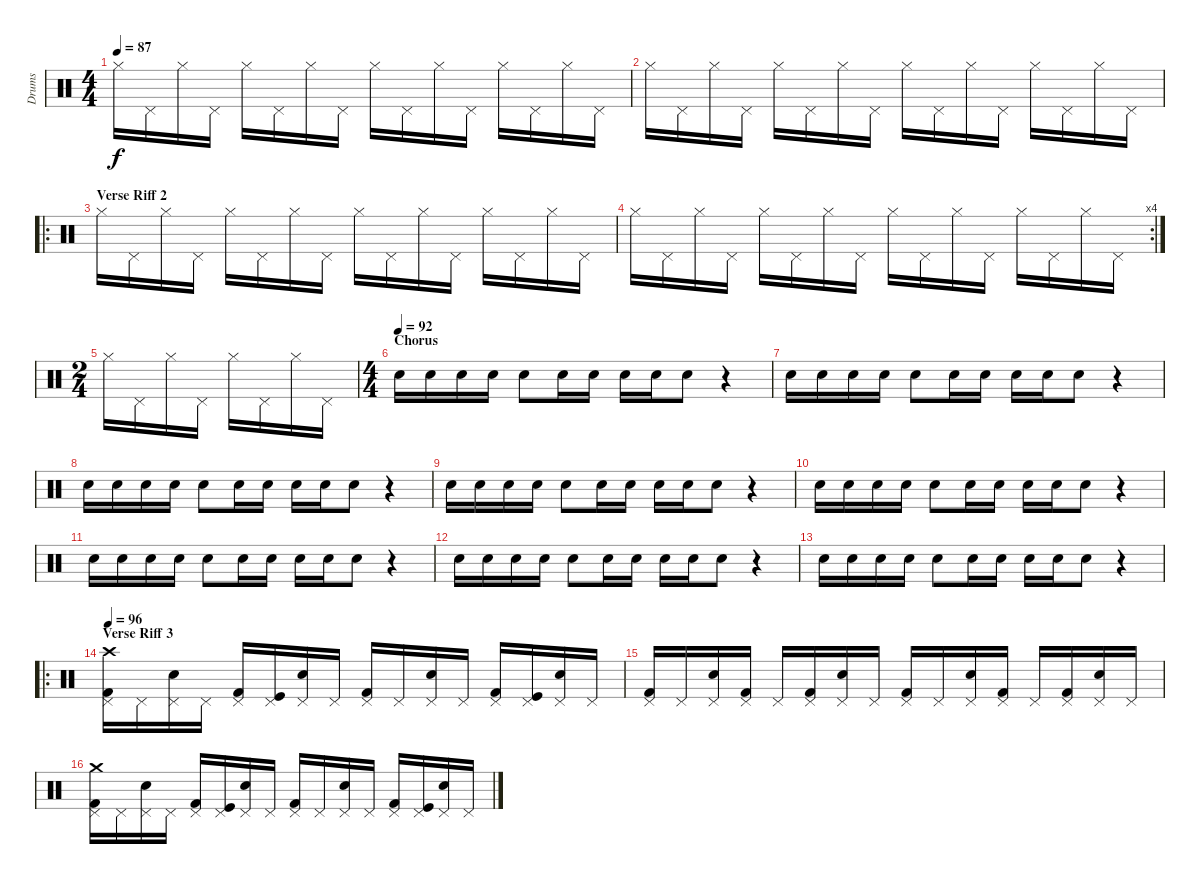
\track ("Drums" "Drums") {instrument percussion}
\staff {score}
\articulation defaults
\ts (4 4)
\tempo 87
\clef neutral
\ks c "Hi-Hat (closed)".16{dy f} "Pedal Hi-Hat (hit)".16 "Hi-Hat (closed)".16 "Pedal Hi-Hat (hit)".16 "Hi-Hat (closed)".16 "Pedal Hi-Hat (hit)".16 "Hi-Hat (closed)".16 "Pedal Hi-Hat (hit)".16 "Hi-Hat (closed)".16 "Pedal Hi-Hat (hit)".16 "Hi-Hat (closed)".16 "Pedal Hi-Hat (hit)".16 "Hi-Hat (closed)".16 "Pedal Hi-Hat (hit)".16 "Hi-Hat (closed)".16 "Pedal Hi-Hat (hit)".16
|
"Hi-Hat (closed)".16 "Pedal Hi-Hat (hit)".16 "Hi-Hat (closed)".16 "Pedal Hi-Hat (hit)".16 "Hi-Hat (closed)".16 "Pedal Hi-Hat (hit)".16 "Hi-Hat (closed)".16 "Pedal Hi-Hat (hit)".16 "Hi-Hat (closed)".16 "Pedal Hi-Hat (hit)".16 "Hi-Hat (closed)".16 "Pedal Hi-Hat (hit)".16 "Hi-Hat (closed)".16 "Pedal Hi-Hat (hit)".16 "Hi-Hat (closed)".16 "Pedal Hi-Hat (hit)".16 |
\ro
\section ("" "Verse Riff 2")
"Hi-Hat (closed)".16 "Pedal Hi-Hat (hit)".16 "Hi-Hat (closed)".16 "Pedal Hi-Hat (hit)".16 "Hi-Hat (closed)".16 "Pedal Hi-Hat (hit)".16 "Hi-Hat (closed)".16 "Pedal Hi-Hat (hit)".16 "Hi-Hat (closed)".16 "Pedal Hi-Hat (hit)".16 "Hi-Hat (closed)".16 "Pedal Hi-Hat (hit)".16 "Hi-Hat (closed)".16 "Pedal Hi-Hat (hit)".16 "Hi-Hat (closed)".16 "Pedal Hi-Hat (hit)".16 |
\rc 4 "Hi-Hat (closed)".16 "Pedal Hi-Hat (hit)".16 "Hi-Hat (closed)".16 "Pedal Hi-Hat (hit)".16 "Hi-Hat (closed)".16 "Pedal Hi-Hat (hit)".16 "Hi-Hat (closed)".16 "Pedal Hi-Hat (hit)".16 "Hi-Hat (closed)".16 "Pedal Hi-Hat (hit)".16 "Hi-Hat (closed)".16 "Pedal Hi-Hat (hit)".16 "Hi-Hat (closed)".16 "Pedal Hi-Hat (hit)".16 "Hi-Hat (closed)".16 "Pedal Hi-Hat (hit)".16
|
\ts (2 4)
"Hi-Hat (closed)".16 "Pedal Hi-Hat (hit)".16 "Hi-Hat (closed)".16 "Pedal Hi-Hat (hit)".16 "Hi-Hat (closed)".16 "Pedal Hi-Hat (hit)".16 "Hi-Hat (closed)".16 "Pedal Hi-Hat (hit)".16 |
\ts (4 4)
\section ("" "Chorus")
\tempo (92)
"Snare (hit) 2".16 "Snare (hit) 2".16 "Snare (hit) 2".16 "Snare (hit) 2".16 "Snare (hit) 2".8 "Snare (hit) 2".16 "Snare (hit) 2".16 "Snare (hit) 2".16 "Snare (hit) 2".16 "Snare (hit) 2".8 r.4 |
"Snare (hit) 2".16 "Snare (hit) 2".16 "Snare (hit) 2".16 "Snare (hit) 2".16 "Snare (hit) 2".8 "Snare (hit) 2".16 "Snare (hit) 2".16 "Snare (hit) 2".16 "Snare (hit) 2".16 "Snare (hit) 2".8 r.4 |
"Snare (hit) 2".16 "Snare (hit) 2".16 "Snare (hit) 2".16 "Snare (hit) 2".16 "Snare (hit) 2".8 "Snare (hit) 2".16 "Snare (hit) 2".16 "Snare (hit) 2".16 "Snare (hit) 2".16 "Snare (hit) 2".8 r.4 |
"Snare (hit) 2".16 "Snare (hit) 2".16 "Snare (hit) 2".16 "Snare (hit) 2".16 "Snare (hit) 2".8 "Snare (hit) 2".16 "Snare (hit) 2".16 "Snare (hit) 2".16 "Snare (hit) 2".16 "Snare (hit) 2".8 r.4 |
"Snare (hit) 2".16 "Snare (hit) 2".16 "Snare (hit) 2".16 "Snare (hit) 2".16 "Snare (hit) 2".8 "Snare (hit) 2".16 "Snare (hit) 2".16 "Snare (hit) 2".16 "Snare (hit) 2".16 "Snare (hit) 2".8 r.4 |
"Snare (hit) 2".16 "Snare (hit) 2".16 "Snare (hit) 2".16 "Snare (hit) 2".16 "Snare (hit) 2".8 "Snare (hit) 2".16 "Snare (hit) 2".16 "Snare (hit) 2".16 "Snare (hit) 2".16 "Snare (hit) 2".8 r.4 |
"Snare (hit) 2".16 "Snare (hit) 2".16 "Snare (hit) 2".16 "Snare (hit) 2".16 "Snare (hit) 2".8 "Snare (hit) 2".16 "Snare (hit) 2".16 "Snare (hit) 2".16 "Snare (hit) 2".16 "Snare (hit) 2".8 r.4 |
"Snare (hit) 2".16 "Snare (hit) 2".16 "Snare (hit) 2".16 "Snare (hit) 2".16 "Snare (hit) 2".8 "Snare (hit) 2".16 "Snare (hit) 2".16 "Snare (hit) 2".16 "Snare (hit) 2".16 "Snare (hit) 2".8 r.4 |
\ro
\section ("" "Verse Riff 3")
\tempo 96
("Kick (hit) 2" "Pedal Hi-Hat (hit)" "Crash high (hit)").16 "Pedal Hi-Hat (hit)".16 ("Snare (hit) 2" "Pedal Hi-Hat (hit)").16 "Pedal Hi-Hat (hit)".16 ("Kick (hit) 2" "Pedal Hi-Hat (hit)").16 ("Kick (hit)" "Pedal Hi-Hat (hit)").16 ("Snare (hit) 2" "Pedal Hi-Hat (hit)").16 "Pedal Hi-Hat (hit)".16 ("Kick (hit) 2" "Pedal Hi-Hat (hit)").16 "Pedal Hi-Hat (hit)".16 ("Snare (hit) 2" "Pedal Hi-Hat (hit)").16 "Pedal Hi-Hat (hit)".16 ("Kick (hit) 2" "Pedal Hi-Hat (hit)").16 ("Kick (hit)" "Pedal Hi-Hat (hit)").16 ("Snare (hit) 2" "Pedal Hi-Hat (hit)").16 "Pedal Hi-Hat (hit)".16 |
("Kick (hit) 2" "Pedal Hi-Hat (hit)").16 "Pedal Hi-Hat (hit)".16 ("Snare (hit) 2" "Pedal Hi-Hat (hit)").16 ("Kick (hit) 2" "Pedal Hi-Hat (hit)").16 "Pedal Hi-Hat (hit)".16 ("Kick (hit) 2" "Pedal Hi-Hat (hit)").16 ("Snare (hit) 2" "Pedal Hi-Hat (hit)").16 "Pedal Hi-Hat (hit)".16 ("Kick (hit) 2" "Pedal Hi-Hat (hit)").16 "Pedal Hi-Hat (hit)".16 ("Snare (hit) 2" "Pedal Hi-Hat (hit)").16 ("Kick (hit) 2" "Pedal Hi-Hat (hit)").16 "Pedal Hi-Hat (hit)".16 ("Kick (hit) 2" "Pedal Hi-Hat (hit)").16 ("Snare (hit) 2" "Pedal Hi-Hat (hit)").16 "Pedal Hi-Hat (hit)".16 |
("Kick (hit) 2" "Pedal Hi-Hat (hit)" "Crash medium (hit)").16 "Pedal Hi-Hat (hit)".16 ("Snare (hit) 2" "Pedal Hi-Hat (hit)").16 "Pedal Hi-Hat (hit)".16 ("Kick (hit) 2" "Pedal Hi-Hat (hit)").16 ("Kick (hit)" "Pedal Hi-Hat (hit)").16 ("Snare (hit) 2" "Pedal Hi-Hat (hit)").16 "Pedal Hi-Hat (hit)".16 ("Kick (hit) 2" "Pedal Hi-Hat (hit)").16 "Pedal Hi-Hat (hit)".16 ("Snare (hit) 2" "Pedal Hi-Hat (hit)").16 "Pedal Hi-Hat (hit)".16 ("Kick (hit) 2" "Pedal Hi-Hat (hit)").16 ("Kick (hit)" "Pedal Hi-Hat (hit)").16 ("Snare (hit) 2" "Pedal Hi-Hat (hit)").16 "Pedal Hi-Hat (hit)".16
